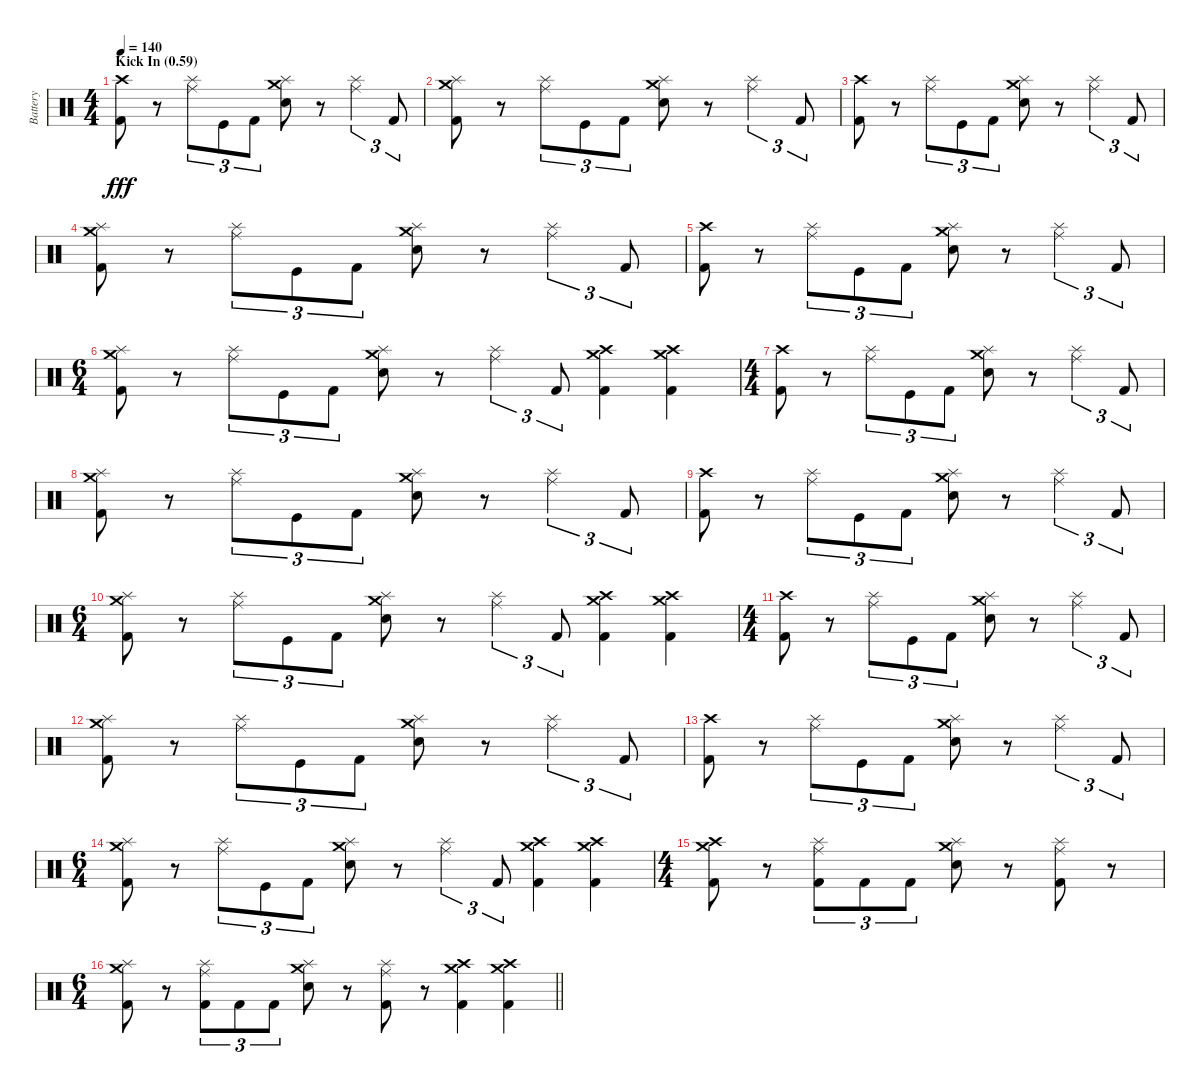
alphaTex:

\track ("Battery" "Battery") {instrument percussion}
\staff {score}
\articulation defaults
\ts (4 4)
\section ("" "Kick In (0.59)")
\tempo 140
\clef neutral
\ks c
("Crash high (hit)" "Kick (hit) 2").8{dy fff} r.8 ("Ride (middle)" "Splash (hit)").8{tu (3 2)} "Kick (hit)".8{tu (3 2)} "Kick (hit) 2".8{tu (3 2)} ("Crash medium (hit)" "Splash (hit)" "Electric Snare (hit)").8 r.8 ("Ride (middle)" "Splash (hit)").4{tu (3 2)} "Kick (hit) 2".8{tu (3 2)} |
("Crash medium (hit)" "Splash (hit)" "Kick (hit) 2").8 r.8 ("Ride (middle)" "Splash (hit)").8{tu (3 2)} "Kick (hit)".8{tu (3 2)} "Kick (hit) 2".8{tu (3 2)} ("Crash medium (hit)" "Splash (hit)" "Electric Snare (hit)").8 r.8 ("Ride (middle)" "Splash (hit)").4{tu (3 2)} "Kick (hit) 2".8{tu (3 2)} |
("Crash high (hit)" "Kick (hit) 2").8 r.8 ("Ride (middle)" "Splash (hit)").8{tu (3 2)} "Kick (hit)".8{tu (3 2)} "Kick (hit) 2".8{tu (3 2)} ("Crash medium (hit)" "Splash (hit)" "Electric Snare (hit)").8 r.8 ("Ride (middle)" "Splash (hit)").4{tu (3 2)} "Kick (hit) 2".8{tu (3 2)} |
("Crash medium (hit)" "Splash (hit)" "Kick (hit) 2").8 r.8 ("Ride (middle)" "Splash (hit)").8{tu (3 2)} "Kick (hit)".8{tu (3 2)} "Kick (hit) 2".8{tu (3 2)} ("Crash medium (hit)" "Splash (hit)" "Electric Snare (hit)").8 r.8 ("Ride (middle)" "Splash (hit)").4{tu (3 2)} "Kick (hit) 2".8{tu (3 2)} |
("Crash high (hit)" "Kick (hit) 2").8 r.8 ("Ride (middle)" "Splash (hit)").8{tu (3 2)} "Kick (hit)".8{tu (3 2)} "Kick (hit) 2".8{tu (3 2)} ("Crash medium (hit)" "Splash (hit)" "Electric Snare (hit)").8 r.8 ("Ride (middle)" "Splash (hit)").4{tu (3 2)} "Kick (hit) 2".8{tu (3 2)} |
\ts (6 4)
("Crash medium (hit)" "Splash (hit)" "Kick (hit) 2").8 r.8 ("Ride (middle)" "Splash (hit)").8{tu (3 2)} "Kick (hit)".8{tu (3 2)} "Kick (hit) 2".8{tu (3 2)} ("Crash medium (hit)" "Splash (hit)" "Electric Snare (hit)").8 r.8 ("Ride (middle)" "Splash (hit)").4{tu (3 2)} "Kick (hit) 2".8{tu (3 2)} ("Crash high (hit)" "Crash medium (hit)" "Kick (hit) 2").4 ("Crash high (hit)" "Crash medium (hit)" "Kick (hit) 2").4 |
\ts (4 4)
("Crash high (hit)" "Kick (hit) 2").8 r.8 ("Ride (middle)" "Splash (hit)").8{tu (3 2)} "Kick (hit)".8{tu (3 2)} "Kick (hit) 2".8{tu (3 2)} ("Crash medium (hit)" "Splash (hit)" "Electric Snare (hit)").8 r.8 ("Ride (middle)" "Splash (hit)").4{tu (3 2)} "Kick (hit) 2".8{tu (3 2)} |
("Crash medium (hit)" "Splash (hit)" "Kick (hit) 2").8 r.8 ("Ride (middle)" "Splash (hit)").8{tu (3 2)} "Kick (hit)".8{tu (3 2)} "Kick (hit) 2".8{tu (3 2)} ("Crash medium (hit)" "Splash (hit)" "Electric Snare (hit)").8 r.8 ("Ride (middle)" "Splash (hit)").4{tu (3 2)} "Kick (hit) 2".8{tu (3 2)} |
("Crash high (hit)" "Kick (hit) 2").8 r.8 ("Ride (middle)" "Splash (hit)").8{tu (3 2)} "Kick (hit)".8{tu (3 2)} "Kick (hit) 2".8{tu (3 2)} ("Crash medium (hit)" "Splash (hit)" "Electric Snare (hit)").8 r.8 ("Ride (middle)" "Splash (hit)").4{tu (3 2)} "Kick (hit) 2".8{tu (3 2)} |
\ts (6 4)
("Crash medium (hit)" "Splash (hit)" "Kick (hit) 2").8 r.8 ("Ride (middle)" "Splash (hit)").8{tu (3 2)} "Kick (hit)".8{tu (3 2)} "Kick (hit) 2".8{tu (3 2)} ("Crash medium (hit)" "Splash (hit)" "Electric Snare (hit)").8 r.8 ("Ride (middle)" "Splash (hit)").4{tu (3 2)} "Kick (hit) 2".8{tu (3 2)} ("Crash high (hit)" "Crash medium (hit)" "Kick (hit) 2").4 ("Crash high (hit)" "Crash medium (hit)" "Kick (hit) 2").4 |
\ts (4 4)
("Crash high (hit)" "Kick (hit) 2").8 r.8 ("Ride (middle)" "Splash (hit)").8{tu (3 2)} "Kick (hit)".8{tu (3 2)} "Kick (hit) 2".8{tu (3 2)} ("Crash medium (hit)" "Splash (hit)" "Electric Snare (hit)").8 r.8 ("Ride (middle)" "Splash (hit)").4{tu (3 2)} "Kick (hit) 2".8{tu (3 2)} |
("Crash medium (hit)" "Splash (hit)" "Kick (hit) 2").8 r.8 ("Ride (middle)" "Splash (hit)").8{tu (3 2)} "Kick (hit)".8{tu (3 2)} "Kick (hit) 2".8{tu (3 2)} ("Crash medium (hit)" "Splash (hit)" "Electric Snare (hit)").8 r.8 ("Ride (middle)" "Splash (hit)").4{tu (3 2)} "Kick (hit) 2".8{tu (3 2)} |
("Crash high (hit)" "Kick (hit) 2").8 r.8 ("Ride (middle)" "Splash (hit)").8{tu (3 2)} "Kick (hit)".8{tu (3 2)} "Kick (hit) 2".8{tu (3 2)} ("Crash medium (hit)" "Splash (hit)" "Electric Snare (hit)").8 r.8 ("Ride (middle)" "Splash (hit)").4{tu (3 2)} "Kick (hit) 2".8{tu (3 2)} |
\ts (6 4)
("Crash medium (hit)" "Splash (hit)" "Kick (hit) 2").8 r.8 ("Ride (middle)" "Splash (hit)").8{tu (3 2)} "Kick (hit)".8{tu (3 2)} "Kick (hit) 2".8{tu (3 2)} ("Crash medium (hit)" "Splash (hit)" "Electric Snare (hit)").8 r.8 ("Ride (middle)" "Splash (hit)").4{tu (3 2)} "Kick (hit) 2".8{tu (3 2)} ("Crash high (hit)" "Crash medium (hit)" "Kick (hit) 2").4 ("Crash high (hit)" "Crash medium (hit)" "Kick (hit) 2").4 |
\ts (4 4)
("Crash high (hit)" "Crash medium (hit)" "Kick (hit) 2").8 r.8 ("Ride (middle)" "Splash (hit)" "Kick (hit) 2").8{tu (3 2)} "Kick (hit) 2".8{tu (3 2)} "Kick (hit) 2".8{tu (3 2)} ("Crash medium (hit)" "Splash (hit)" "Electric Snare (hit)").8 r.8 ("Ride (middle)" "Splash (hit)" "Kick (hit) 2").8 r.8 |
\ts (6 4)
\barLineRight lightlight
("Crash medium (hit)" "Splash (hit)" "Kick (hit) 2").8 r.8 ("Ride (middle)" "Splash (hit)" "Kick (hit) 2").8{tu (3 2)} "Kick (hit) 2".8{tu (3 2)} "Kick (hit) 2".8{tu (3 2)} ("Crash medium (hit)" "Splash (hit)" "Electric Snare (hit)").8 r.8 ("Ride (middle)" "Splash (hit)" "Kick (hit) 2").8 r.8 ("Crash high (hit)" "Crash medium (hit)" "Kick (hit) 2").4 ("Crash high (hit)" "Crash medium (hit)" "Kick (hit) 2").4
